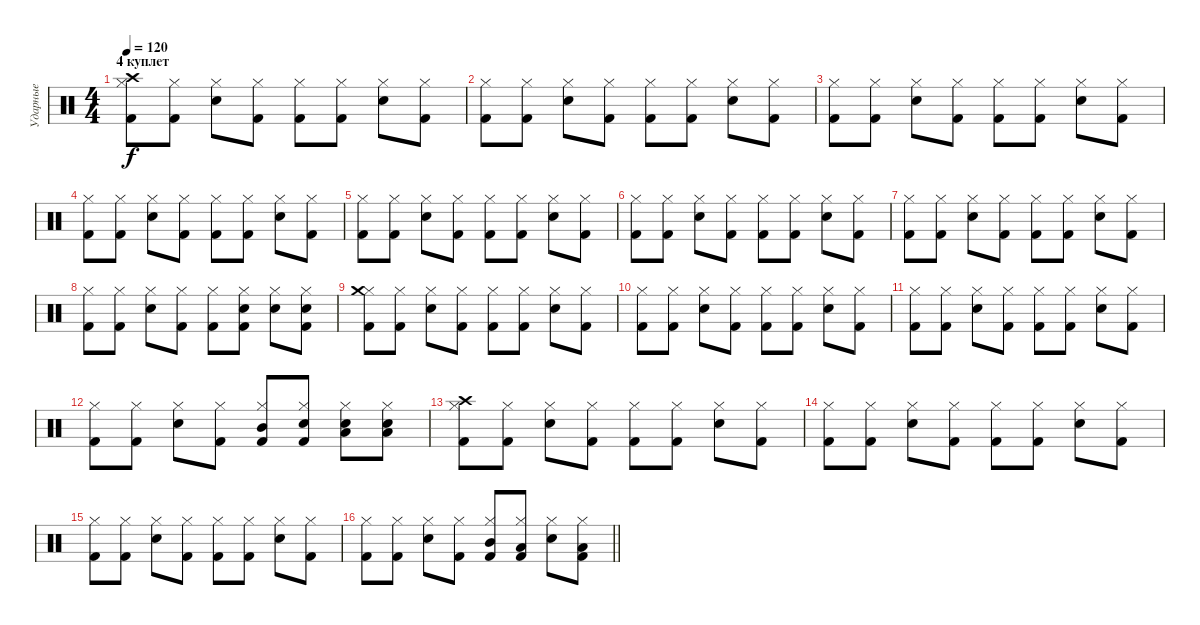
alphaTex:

\track ("Ударные" "Ударные") {instrument percussion}
\staff {score}
\articulation defaults
\ts (4 4)
\section ("" "4 куплет")
\tempo 120
\clef neutral
\ks c
("Kick (hit) 2" "Hi-Hat (closed)" "Crash high (hit)").8{dy f} ("Kick (hit) 2" "Hi-Hat (closed)").8 ("Snare (hit) 2" "Hi-Hat (closed)").8 ("Kick (hit) 2" "Hi-Hat (closed)").8 ("Kick (hit) 2" "Hi-Hat (closed)").8 ("Kick (hit) 2" "Hi-Hat (closed)").8 ("Snare (hit) 2" "Hi-Hat (closed)").8 ("Kick (hit) 2" "Hi-Hat (closed)").8 |
("Kick (hit) 2" "Hi-Hat (closed)").8 ("Kick (hit) 2" "Hi-Hat (closed)").8 ("Snare (hit) 2" "Hi-Hat (closed)").8 ("Kick (hit) 2" "Hi-Hat (closed)").8 ("Kick (hit) 2" "Hi-Hat (closed)").8 ("Kick (hit) 2" "Hi-Hat (closed)").8 ("Snare (hit) 2" "Hi-Hat (closed)").8 ("Kick (hit) 2" "Hi-Hat (closed)").8 |
("Kick (hit) 2" "Hi-Hat (closed)").8 ("Kick (hit) 2" "Hi-Hat (closed)").8 ("Snare (hit) 2" "Hi-Hat (closed)").8 ("Kick (hit) 2" "Hi-Hat (closed)").8 ("Kick (hit) 2" "Hi-Hat (closed)").8 ("Kick (hit) 2" "Hi-Hat (closed)").8 ("Snare (hit) 2" "Hi-Hat (closed)").8 ("Kick (hit) 2" "Hi-Hat (closed)").8 |
("Kick (hit) 2" "Hi-Hat (closed)").8 ("Kick (hit) 2" "Hi-Hat (closed)").8 ("Snare (hit) 2" "Hi-Hat (closed)").8 ("Kick (hit) 2" "Hi-Hat (closed)").8 ("Kick (hit) 2" "Hi-Hat (closed)").8 ("Kick (hit) 2" "Hi-Hat (closed)").8 ("Snare (hit) 2" "Hi-Hat (closed)").8 ("Kick (hit) 2" "Hi-Hat (closed)").8 |
("Kick (hit) 2" "Hi-Hat (closed)").8 ("Kick (hit) 2" "Hi-Hat (closed)").8 ("Snare (hit) 2" "Hi-Hat (closed)").8 ("Kick (hit) 2" "Hi-Hat (closed)").8 ("Kick (hit) 2" "Hi-Hat (closed)").8 ("Kick (hit) 2" "Hi-Hat (closed)").8 ("Snare (hit) 2" "Hi-Hat (closed)").8 ("Kick (hit) 2" "Hi-Hat (closed)").8 |
("Kick (hit) 2" "Hi-Hat (closed)").8 ("Kick (hit) 2" "Hi-Hat (closed)").8 ("Snare (hit) 2" "Hi-Hat (closed)").8 ("Kick (hit) 2" "Hi-Hat (closed)").8 ("Kick (hit) 2" "Hi-Hat (closed)").8 ("Kick (hit) 2" "Hi-Hat (closed)").8 ("Snare (hit) 2" "Hi-Hat (closed)").8 ("Kick (hit) 2" "Hi-Hat (closed)").8 |
("Kick (hit) 2" "Hi-Hat (closed)").8 ("Kick (hit) 2" "Hi-Hat (closed)").8 ("Snare (hit) 2" "Hi-Hat (closed)").8 ("Kick (hit) 2" "Hi-Hat (closed)").8 ("Kick (hit) 2" "Hi-Hat (closed)").8 ("Kick (hit) 2" "Hi-Hat (closed)").8 ("Snare (hit) 2" "Hi-Hat (closed)").8 ("Kick (hit) 2" "Hi-Hat (closed)").8 |
("Kick (hit) 2" "Hi-Hat (closed)").8 ("Kick (hit) 2" "Hi-Hat (closed)").8 ("Snare (hit) 2" "Hi-Hat (closed)").8 ("Kick (hit) 2" "Hi-Hat (closed)").8 ("Kick (hit) 2" "Hi-Hat (closed)").8 ("Kick (hit) 2" "Hi-Hat (closed)" "Snare (hit) 2").8 ("Snare (hit) 2" "Hi-Hat (closed)").8 ("Kick (hit) 2" "Hi-Hat (closed)" "Snare (hit) 2").8 |
("Kick (hit) 2" "Hi-Hat (closed)" "Crash medium (hit)").8 ("Kick (hit) 2" "Hi-Hat (closed)").8 ("Snare (hit) 2" "Hi-Hat (closed)").8 ("Kick (hit) 2" "Hi-Hat (closed)").8 ("Kick (hit) 2" "Hi-Hat (closed)").8 ("Kick (hit) 2" "Hi-Hat (closed)").8 ("Snare (hit) 2" "Hi-Hat (closed)").8 ("Kick (hit) 2" "Hi-Hat (closed)").8 |
("Kick (hit) 2" "Hi-Hat (closed)").8 ("Kick (hit) 2" "Hi-Hat (closed)").8 ("Snare (hit) 2" "Hi-Hat (closed)").8 ("Kick (hit) 2" "Hi-Hat (closed)").8 ("Kick (hit) 2" "Hi-Hat (closed)").8 ("Kick (hit) 2" "Hi-Hat (closed)").8 ("Snare (hit) 2" "Hi-Hat (closed)").8 ("Kick (hit) 2" "Hi-Hat (closed)").8 |
("Kick (hit) 2" "Hi-Hat (closed)").8 ("Kick (hit) 2" "Hi-Hat (closed)").8 ("Snare (hit) 2" "Hi-Hat (closed)").8 ("Kick (hit) 2" "Hi-Hat (closed)").8 ("Kick (hit) 2" "Hi-Hat (closed)").8 ("Kick (hit) 2" "Hi-Hat (closed)").8 ("Snare (hit) 2" "Hi-Hat (closed)").8 ("Kick (hit) 2" "Hi-Hat (closed)").8 |
("Kick (hit) 2" "Hi-Hat (closed)").8 ("Kick (hit) 2" "Hi-Hat (closed)").8 ("Snare (hit) 2" "Hi-Hat (closed)").8 ("Kick (hit) 2" "Hi-Hat (closed)").8 ("Kick (hit) 2" "Hi-Hat (closed)" "Mid Tom (hit)").8 ("Kick (hit) 2" "Hi-Hat (closed)" "Snare (hit) 2").8 ("Snare (hit) 2" "Hi-Hat (closed)" "Low Tom (hit)").8 ("Snare (hit) 2" "Hi-Hat (closed)" "Low Floor Tom (hit)").8 |
("Kick (hit) 2" "Hi-Hat (closed)" "Crash high (hit)").8 ("Kick (hit) 2" "Hi-Hat (closed)").8 ("Snare (hit) 2" "Hi-Hat (closed)").8 ("Kick (hit) 2" "Hi-Hat (closed)").8 ("Kick (hit) 2" "Hi-Hat (closed)").8 ("Kick (hit) 2" "Hi-Hat (closed)").8 ("Snare (hit) 2" "Hi-Hat (closed)").8 ("Kick (hit) 2" "Hi-Hat (closed)").8 |
("Kick (hit) 2" "Hi-Hat (closed)").8 ("Kick (hit) 2" "Hi-Hat (closed)").8 ("Snare (hit) 2" "Hi-Hat (closed)").8 ("Kick (hit) 2" "Hi-Hat (closed)").8 ("Kick (hit) 2" "Hi-Hat (closed)").8 ("Kick (hit) 2" "Hi-Hat (closed)").8 ("Snare (hit) 2" "Hi-Hat (closed)").8 ("Kick (hit) 2" "Hi-Hat (closed)").8 |
("Kick (hit) 2" "Hi-Hat (closed)").8 ("Kick (hit) 2" "Hi-Hat (closed)").8 ("Snare (hit) 2" "Hi-Hat (closed)").8 ("Kick (hit) 2" "Hi-Hat (closed)").8 ("Kick (hit) 2" "Hi-Hat (closed)").8 ("Kick (hit) 2" "Hi-Hat (closed)").8 ("Snare (hit) 2" "Hi-Hat (closed)").8 ("Kick (hit) 2" "Hi-Hat (closed)").8 |
\barLineRight lightlight
("Kick (hit) 2" "Hi-Hat (closed)").8 ("Kick (hit) 2" "Hi-Hat (closed)").8 ("Snare (hit) 2" "Hi-Hat (closed)").8 ("Kick (hit) 2" "Hi-Hat (closed)").8 ("Kick (hit) 2" "Hi-Hat (closed)" "Mid Tom (hit)").8 ("Kick (hit) 2" "Hi-Hat (closed)" "Low Floor Tom (hit)").8 ("Snare (hit) 2" "Hi-Hat (closed)").8 ("Kick (hit) 2" "Hi-Hat (closed)" "Low Tom (hit)").8
